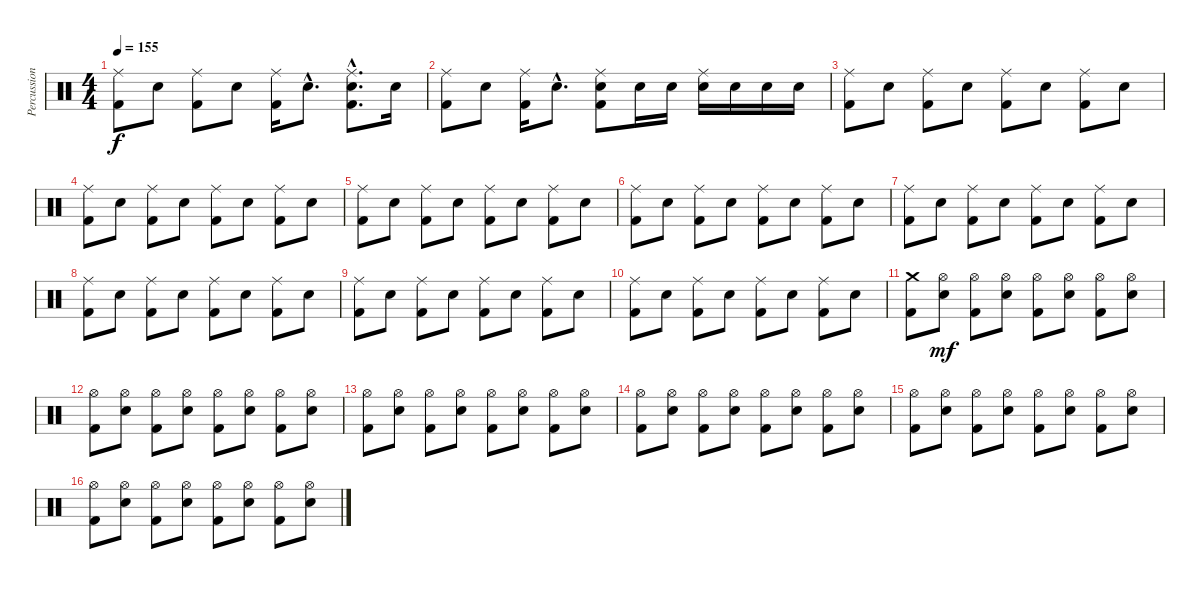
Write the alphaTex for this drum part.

\track ("Percussion" "Percussion") {instrument percussion}
\staff {score}
\articulation defaults
\ts (4 4)
\tempo 155
\clef neutral
\ks c
("Ride (middle)" "Kick (hit) 2").8{dy f} "Electric Snare (hit)".8 ("Ride (middle)" "Kick (hit) 2").8 "Electric Snare (hit)".8 ("Ride (middle)" "Kick (hit) 2").16 "Electric Snare (hit)"{hac}.8{d} ("Ride (middle)"{hac} "Electric Snare (hit)"{hac} "Kick (hit) 2"{hac}).8{d} "Electric Snare (hit)".16 |
("Ride (middle)" "Kick (hit) 2").8 "Electric Snare (hit)".8 ("Ride (middle)" "Kick (hit) 2").16 "Electric Snare (hit)"{hac}.8{d} ("Ride (middle)" "Electric Snare (hit)" "Kick (hit) 2").8 "Electric Snare (hit)".16 "Electric Snare (hit)".16 ("Ride (middle)" "Electric Snare (hit)").16 "Electric Snare (hit)".16 "Electric Snare (hit)".16 "Electric Snare (hit)".16 |
("Ride (middle)" "Kick (hit) 2").8 "Electric Snare (hit)".8 ("Ride (middle)" "Kick (hit) 2").8 "Electric Snare (hit)".8 ("Ride (middle)" "Kick (hit) 2").8 "Electric Snare (hit)".8 ("Ride (middle)" "Kick (hit) 2").8 "Electric Snare (hit)".8 |
("Ride (middle)" "Kick (hit) 2").8 "Electric Snare (hit)".8 ("Ride (middle)" "Kick (hit) 2").8 "Electric Snare (hit)".8 ("Ride (middle)" "Kick (hit) 2").8 "Electric Snare (hit)".8 ("Ride (middle)" "Kick (hit) 2").8 "Electric Snare (hit)".8 |
("Ride (middle)" "Kick (hit) 2").8 "Electric Snare (hit)".8 ("Ride (middle)" "Kick (hit) 2").8 "Electric Snare (hit)".8 ("Ride (middle)" "Kick (hit) 2").8 "Electric Snare (hit)".8 ("Ride (middle)" "Kick (hit) 2").8 "Electric Snare (hit)".8 |
("Ride (middle)" "Kick (hit) 2").8 "Electric Snare (hit)".8 ("Ride (middle)" "Kick (hit) 2").8 "Electric Snare (hit)".8 ("Ride (middle)" "Kick (hit) 2").8 "Electric Snare (hit)".8 ("Ride (middle)" "Kick (hit) 2").8 "Electric Snare (hit)".8 |
("Ride (middle)" "Kick (hit) 2").8 "Electric Snare (hit)".8 ("Ride (middle)" "Kick (hit) 2").8 "Electric Snare (hit)".8 ("Ride (middle)" "Kick (hit) 2").8 "Electric Snare (hit)".8 ("Ride (middle)" "Kick (hit) 2").8 "Electric Snare (hit)".8 |
("Ride (middle)" "Kick (hit) 2").8 "Electric Snare (hit)".8 ("Ride (middle)" "Kick (hit) 2").8 "Electric Snare (hit)".8 ("Ride (middle)" "Kick (hit) 2").8 "Electric Snare (hit)".8 ("Ride (middle)" "Kick (hit) 2").8 "Electric Snare (hit)".8 |
("Ride (middle)" "Kick (hit) 2").8 "Electric Snare (hit)".8 ("Ride (middle)" "Kick (hit) 2").8 "Electric Snare (hit)".8 ("Ride (middle)" "Kick (hit) 2").8 "Electric Snare (hit)".8 ("Ride (middle)" "Kick (hit) 2").8 "Electric Snare (hit)".8 |
("Ride (middle)" "Kick (hit) 2").8 "Electric Snare (hit)".8 ("Ride (middle)" "Kick (hit) 2").8 "Electric Snare (hit)".8 ("Ride (middle)" "Kick (hit) 2").8 "Electric Snare (hit)".8 ("Ride (middle)" "Kick (hit) 2").8 "Electric Snare (hit)".8 |
("Crash medium (hit)" "Kick (hit) 2").8 ("Hi-Hat (open)" "Electric Snare (hit)").8{dy mf} ("Hi-Hat (open)" "Kick (hit) 2").8 ("Hi-Hat (open)" "Electric Snare (hit)").8 ("Hi-Hat (open)" "Kick (hit) 2").8 ("Hi-Hat (open)" "Electric Snare (hit)").8 ("Hi-Hat (open)" "Kick (hit) 2").8 ("Hi-Hat (open)" "Electric Snare (hit)").8 |
("Hi-Hat (open)" "Kick (hit) 2").8 ("Hi-Hat (open)" "Electric Snare (hit)").8 ("Hi-Hat (open)" "Kick (hit) 2").8 ("Hi-Hat (open)" "Electric Snare (hit)").8 ("Hi-Hat (open)" "Kick (hit) 2").8 ("Hi-Hat (open)" "Electric Snare (hit)").8 ("Hi-Hat (open)" "Kick (hit) 2").8 ("Hi-Hat (open)" "Electric Snare (hit)").8 |
("Hi-Hat (open)" "Kick (hit) 2").8 ("Hi-Hat (open)" "Electric Snare (hit)").8 ("Hi-Hat (open)" "Kick (hit) 2").8 ("Hi-Hat (open)" "Electric Snare (hit)").8 ("Hi-Hat (open)" "Kick (hit) 2").8 ("Hi-Hat (open)" "Electric Snare (hit)").8 ("Hi-Hat (open)" "Kick (hit) 2").8 ("Hi-Hat (open)" "Electric Snare (hit)").8 |
("Hi-Hat (open)" "Kick (hit) 2").8 ("Hi-Hat (open)" "Electric Snare (hit)").8 ("Hi-Hat (open)" "Kick (hit) 2").8 ("Hi-Hat (open)" "Electric Snare (hit)").8 ("Hi-Hat (open)" "Kick (hit) 2").8 ("Hi-Hat (open)" "Electric Snare (hit)").8 ("Hi-Hat (open)" "Kick (hit) 2").8 ("Hi-Hat (open)" "Electric Snare (hit)").8 |
("Hi-Hat (open)" "Kick (hit) 2").8 ("Hi-Hat (open)" "Electric Snare (hit)").8 ("Hi-Hat (open)" "Kick (hit) 2").8 ("Hi-Hat (open)" "Electric Snare (hit)").8 ("Hi-Hat (open)" "Kick (hit) 2").8 ("Hi-Hat (open)" "Electric Snare (hit)").8 ("Hi-Hat (open)" "Kick (hit) 2").8 ("Hi-Hat (open)" "Electric Snare (hit)").8 |
("Hi-Hat (open)" "Kick (hit) 2").8 ("Hi-Hat (open)" "Electric Snare (hit)").8 ("Hi-Hat (open)" "Kick (hit) 2").8 ("Hi-Hat (open)" "Electric Snare (hit)").8 ("Hi-Hat (open)" "Kick (hit) 2").8 ("Hi-Hat (open)" "Electric Snare (hit)").8 ("Hi-Hat (open)" "Kick (hit) 2").8 ("Hi-Hat (open)" "Electric Snare (hit)").8
